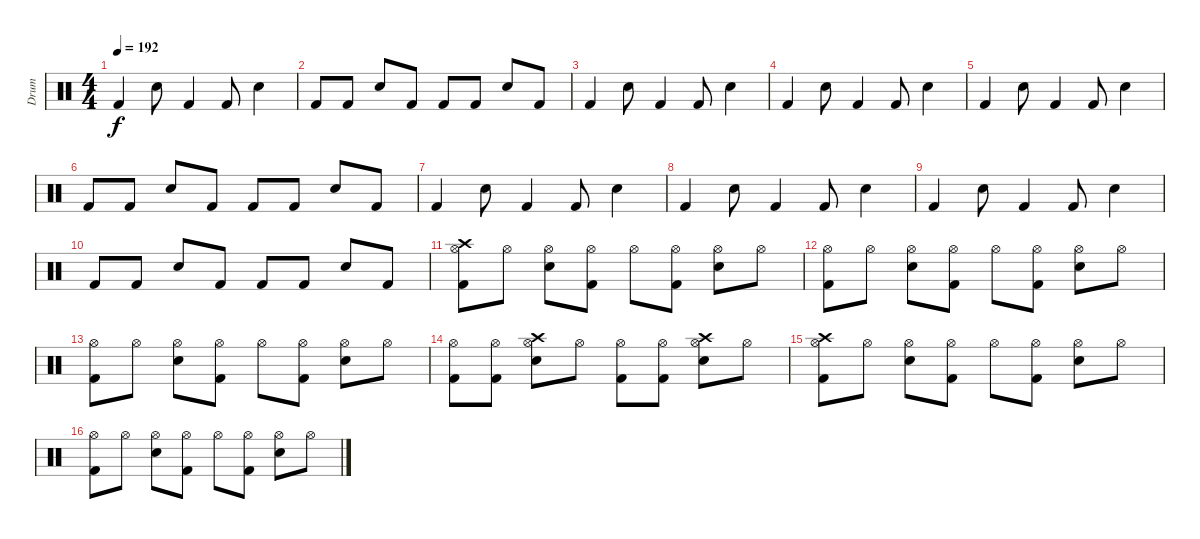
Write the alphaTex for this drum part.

\track ("Drum" "Drum") {instrument percussion}
\staff {score}
\articulation defaults
\ts (4 4)
\tempo 192
\clef neutral
\ks c "Kick (hit) 2".4{dy f} "Electric Snare (hit)".8 "Kick (hit) 2".4 "Kick (hit) 2".8 "Electric Snare (hit)".4
|
"Kick (hit) 2".8 "Kick (hit) 2".8 "Electric Snare (hit)".8 "Kick (hit) 2".8 "Kick (hit) 2".8 "Kick (hit) 2".8 "Electric Snare (hit)".8 "Kick (hit) 2".8 |
"Kick (hit) 2".4 "Electric Snare (hit)".8 "Kick (hit) 2".4 "Kick (hit) 2".8 "Electric Snare (hit)".4 |
"Kick (hit) 2".4 "Electric Snare (hit)".8 "Kick (hit) 2".4 "Kick (hit) 2".8 "Electric Snare (hit)".4 |
"Kick (hit) 2".4 "Electric Snare (hit)".8 "Kick (hit) 2".4 "Kick (hit) 2".8 "Electric Snare (hit)".4 |
"Kick (hit) 2".8 "Kick (hit) 2".8 "Electric Snare (hit)".8 "Kick (hit) 2".8 "Kick (hit) 2".8 "Kick (hit) 2".8 "Electric Snare (hit)".8 "Kick (hit) 2".8 |
"Kick (hit) 2".4 "Electric Snare (hit)".8 "Kick (hit) 2".4 "Kick (hit) 2".8 "Electric Snare (hit)".4 |
"Kick (hit) 2".4 "Electric Snare (hit)".8 "Kick (hit) 2".4 "Kick (hit) 2".8 "Electric Snare (hit)".4 |
"Kick (hit) 2".4 "Electric Snare (hit)".8 "Kick (hit) 2".4 "Kick (hit) 2".8 "Electric Snare (hit)".4 |
"Kick (hit) 2".8 "Kick (hit) 2".8 "Electric Snare (hit)".8 "Kick (hit) 2".8 "Kick (hit) 2".8 "Kick (hit) 2".8 "Electric Snare (hit)".8 "Kick (hit) 2".8 |
("Crash high (hit)" "Kick (hit) 2" "Hi-Hat (open)").8 "Hi-Hat (open)".8 ("Electric Snare (hit)" "Hi-Hat (open)").8 ("Kick (hit) 2" "Hi-Hat (open)").8 "Hi-Hat (open)".8 ("Kick (hit) 2" "Hi-Hat (open)").8 ("Electric Snare (hit)" "Hi-Hat (open)").8 "Hi-Hat (open)".8 |
("Kick (hit) 2" "Hi-Hat (open)").8 "Hi-Hat (open)".8 ("Electric Snare (hit)" "Hi-Hat (open)").8 ("Kick (hit) 2" "Hi-Hat (open)").8 "Hi-Hat (open)".8 ("Kick (hit) 2" "Hi-Hat (open)").8 ("Electric Snare (hit)" "Hi-Hat (open)").8 "Hi-Hat (open)".8 |
("Kick (hit) 2" "Hi-Hat (open)").8 "Hi-Hat (open)".8 ("Electric Snare (hit)" "Hi-Hat (open)").8 ("Kick (hit) 2" "Hi-Hat (open)").8 "Hi-Hat (open)".8 ("Kick (hit) 2" "Hi-Hat (open)").8 ("Electric Snare (hit)" "Hi-Hat (open)").8 "Hi-Hat (open)".8 |
("Kick (hit) 2" "Hi-Hat (open)").8 ("Kick (hit) 2" "Hi-Hat (open)").8 ("Crash high (hit)" "Electric Snare (hit)" "Hi-Hat (open)").8 "Hi-Hat (open)".8 ("Kick (hit) 2" "Hi-Hat (open)").8 ("Kick (hit) 2" "Hi-Hat (open)").8 ("Crash high (hit)" "Electric Snare (hit)" "Hi-Hat (open)").8 "Hi-Hat (open)".8 |
("Crash high (hit)" "Kick (hit) 2" "Hi-Hat (open)").8 "Hi-Hat (open)".8 ("Electric Snare (hit)" "Hi-Hat (open)").8 ("Kick (hit) 2" "Hi-Hat (open)").8 "Hi-Hat (open)".8 ("Kick (hit) 2" "Hi-Hat (open)").8 ("Electric Snare (hit)" "Hi-Hat (open)").8 "Hi-Hat (open)".8 |
("Kick (hit) 2" "Hi-Hat (open)").8 "Hi-Hat (open)".8 ("Electric Snare (hit)" "Hi-Hat (open)").8 ("Kick (hit) 2" "Hi-Hat (open)").8 "Hi-Hat (open)".8 ("Kick (hit) 2" "Hi-Hat (open)").8 ("Electric Snare (hit)" "Hi-Hat (open)").8 "Hi-Hat (open)".8
